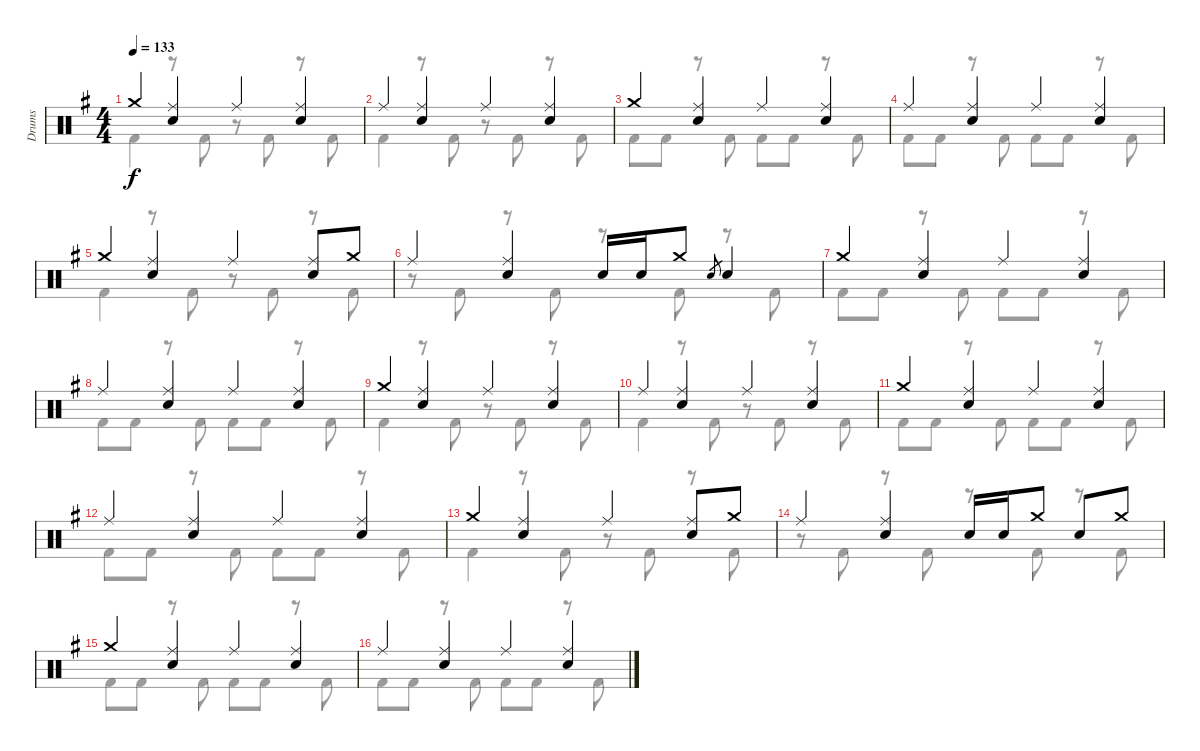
\track ("Drums" "Drums") {instrument percussion}
\staff {score}
\articulation defaults
\voice
\ts (4 4)
\tempo 133
\clef neutral
\ks g "Crash medium (hit)".4{dy f}
("Ride (middle)" "Snare (hit) 2").4 "Ride (middle)".4 ("Ride (middle)" "Snare (hit) 2").4 |
"Ride (middle)".4 ("Ride (middle)" "Snare (hit) 2").4 "Ride (middle)".4 ("Ride (middle)" "Snare (hit) 2").4 |
"Crash medium (hit)".4 ("Ride (middle)" "Snare (hit) 2").4 "Ride (middle)".4 ("Ride (middle)" "Snare (hit) 2").4 |
"Ride (middle)".4 ("Ride (middle)" "Snare (hit) 2").4 "Ride (middle)".4 ("Ride (middle)" "Snare (hit) 2").4 |
"Crash medium (hit)".4 ("Ride (middle)" "Snare (hit) 2").4 "Ride (middle)".4 ("Ride (middle)" "Snare (hit) 2").8 "Crash medium (hit)".8 |
"Ride (middle)".4 ("Ride (middle)" "Snare (hit) 2").4 "Snare (hit) 2".16 "Snare (hit) 2".16 "Crash medium (hit)".8 "Snare (hit) 2".8{gr} "Snare (hit) 2".4 |
"Crash medium (hit)".4 ("Ride (middle)" "Snare (hit) 2").4 "Ride (middle)".4 ("Ride (middle)" "Snare (hit) 2").4 |
"Ride (middle)".4 ("Ride (middle)" "Snare (hit) 2").4 "Ride (middle)".4 ("Ride (middle)" "Snare (hit) 2").4 |
"Crash medium (hit)".4 ("Ride (middle)" "Snare (hit) 2").4 "Ride (middle)".4 ("Ride (middle)" "Snare (hit) 2").4 |
"Ride (middle)".4 ("Ride (middle)" "Snare (hit) 2").4 "Ride (middle)".4 ("Ride (middle)" "Snare (hit) 2").4 |
"Crash medium (hit)".4 ("Ride (middle)" "Snare (hit) 2").4 "Ride (middle)".4 ("Ride (middle)" "Snare (hit) 2").4 |
"Ride (middle)".4 ("Ride (middle)" "Snare (hit) 2").4 "Ride (middle)".4 ("Ride (middle)" "Snare (hit) 2").4 |
"Crash medium (hit)".4 ("Ride (middle)" "Snare (hit) 2").4 "Ride (middle)".4 ("Ride (middle)" "Snare (hit) 2").8 "Crash medium (hit)".8 |
"Ride (middle)".4 ("Ride (middle)" "Snare (hit) 2").4 "Snare (hit) 2".16 "Snare (hit) 2".16 "Crash medium (hit)".8 "Snare (hit) 2".8 "Crash medium (hit)".8 |
"Crash medium (hit)".4 ("Ride (middle)" "Snare (hit) 2").4 "Ride (middle)".4 ("Ride (middle)" "Snare (hit) 2").4 |
"Ride (middle)".4 ("Ride (middle)" "Snare (hit) 2").4 "Ride (middle)".4 ("Ride (middle)" "Snare (hit) 2").4
\voice
\clef neutral
\ottava regular
\simile none
\ks g "Kick (hit) 2".4{dy f}
r.8 "Kick (hit) 2".8 r.8 "Kick (hit) 2".8 r.8 "Kick (hit) 2".8 |
"Kick (hit) 2".4 r.8 "Kick (hit) 2".8 r.8 "Kick (hit) 2".8 r.8 "Kick (hit) 2".8 |
"Kick (hit) 2".8 "Kick (hit) 2".8 r.8 "Kick (hit) 2".8 "Kick (hit) 2".8 "Kick (hit) 2".8 r.8 "Kick (hit) 2".8 |
"Kick (hit) 2".8 "Kick (hit) 2".8 r.8 "Kick (hit) 2".8 "Kick (hit) 2".8 "Kick (hit) 2".8 r.8 "Kick (hit) 2".8 |
"Kick (hit) 2".4 r.8 "Kick (hit) 2".8 r.8 "Kick (hit) 2".8 r.8 "Kick (hit) 2".8 |
r.8 "Kick (hit) 2".8 r.8 "Kick (hit) 2".8 r.8 "Kick (hit) 2".8 r.8 "Kick (hit) 2".8 |
"Kick (hit) 2".8 "Kick (hit) 2".8 r.8 "Kick (hit) 2".8 "Kick (hit) 2".8 "Kick (hit) 2".8 r.8 "Kick (hit) 2".8 |
"Kick (hit) 2".8 "Kick (hit) 2".8 r.8 "Kick (hit) 2".8 "Kick (hit) 2".8 "Kick (hit) 2".8 r.8 "Kick (hit) 2".8 |
"Kick (hit) 2".4 r.8 "Kick (hit) 2".8 r.8 "Kick (hit) 2".8 r.8 "Kick (hit) 2".8 |
"Kick (hit) 2".4 r.8 "Kick (hit) 2".8 r.8 "Kick (hit) 2".8 r.8 "Kick (hit) 2".8 |
"Kick (hit) 2".8 "Kick (hit) 2".8 r.8 "Kick (hit) 2".8 "Kick (hit) 2".8 "Kick (hit) 2".8 r.8 "Kick (hit) 2".8 |
"Kick (hit) 2".8 "Kick (hit) 2".8 r.8 "Kick (hit) 2".8 "Kick (hit) 2".8 "Kick (hit) 2".8 r.8 "Kick (hit) 2".8 |
"Kick (hit) 2".4 r.8 "Kick (hit) 2".8 r.8 "Kick (hit) 2".8 r.8 "Kick (hit) 2".8 |
r.8 "Kick (hit) 2".8 r.8 "Kick (hit) 2".8 r.8 "Kick (hit) 2".8 r.8 "Kick (hit) 2".8 |
"Kick (hit) 2".8 "Kick (hit) 2".8 r.8 "Kick (hit) 2".8 "Kick (hit) 2".8 "Kick (hit) 2".8 r.8 "Kick (hit) 2".8 |
"Kick (hit) 2".8 "Kick (hit) 2".8 r.8 "Kick (hit) 2".8 "Kick (hit) 2".8 "Kick (hit) 2".8 r.8 "Kick (hit) 2".8
